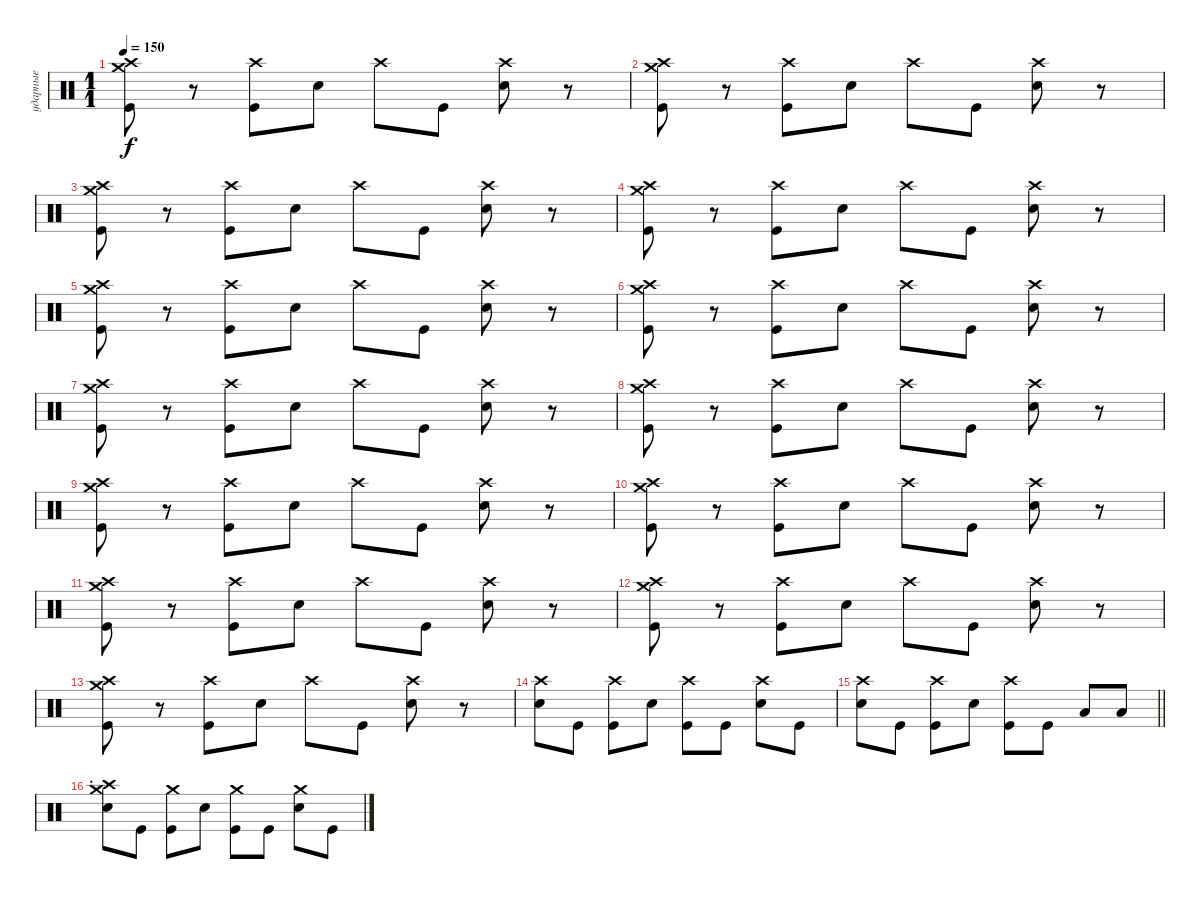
\track ("ударные" "ударные") {instrument percussion}
\staff {score}
\articulation defaults
\ts (1 1)
\tempo 150
\clef neutral
\ks c
("Crash high (hit)" "Crash medium (hit)" "Kick (hit)").8{dy f} r.8 ("Crash high (hit)" "Kick (hit)").8 "Snare (hit) 2".8 "Crash high (hit)".8 "Kick (hit)".8 ("Crash high (hit)" "Snare (hit) 2").8 r.8 |
("Crash high (hit)" "Crash medium (hit)" "Kick (hit)").8 r.8 ("Crash high (hit)" "Kick (hit)").8 "Snare (hit) 2".8 "Crash high (hit)".8 "Kick (hit)".8 ("Crash high (hit)" "Snare (hit) 2").8 r.8 |
("Crash high (hit)" "Crash medium (hit)" "Kick (hit)").8 r.8 ("Crash high (hit)" "Kick (hit)").8 "Snare (hit) 2".8 "Crash high (hit)".8 "Kick (hit)".8 ("Crash high (hit)" "Snare (hit) 2").8 r.8 |
("Crash high (hit)" "Crash medium (hit)" "Kick (hit)").8 r.8 ("Crash high (hit)" "Kick (hit)").8 "Snare (hit) 2".8 "Crash high (hit)".8 "Kick (hit)".8 ("Crash high (hit)" "Snare (hit) 2").8 r.8 |
("Crash high (hit)" "Crash medium (hit)" "Kick (hit)").8 r.8 ("Crash high (hit)" "Kick (hit)").8 "Snare (hit) 2".8 "Crash high (hit)".8 "Kick (hit)".8 ("Crash high (hit)" "Snare (hit) 2").8 r.8 |
("Crash high (hit)" "Crash medium (hit)" "Kick (hit)").8 r.8 ("Crash high (hit)" "Kick (hit)").8 "Snare (hit) 2".8 "Crash high (hit)".8 "Kick (hit)".8 ("Crash high (hit)" "Snare (hit) 2").8 r.8 |
("Crash high (hit)" "Crash medium (hit)" "Kick (hit)").8 r.8 ("Crash high (hit)" "Kick (hit)").8 "Snare (hit) 2".8 "Crash high (hit)".8 "Kick (hit)".8 ("Crash high (hit)" "Snare (hit) 2").8 r.8 |
("Crash high (hit)" "Crash medium (hit)" "Kick (hit)").8 r.8 ("Crash high (hit)" "Kick (hit)").8 "Snare (hit) 2".8 "Crash high (hit)".8 "Kick (hit)".8 ("Crash high (hit)" "Snare (hit) 2").8 r.8 |
("Crash high (hit)" "Crash medium (hit)" "Kick (hit)").8 r.8 ("Crash high (hit)" "Kick (hit)").8 "Snare (hit) 2".8 "Crash high (hit)".8 "Kick (hit)".8 ("Crash high (hit)" "Snare (hit) 2").8 r.8 |
("Crash high (hit)" "Crash medium (hit)" "Kick (hit)").8 r.8 ("Crash high (hit)" "Kick (hit)").8 "Snare (hit) 2".8 "Crash high (hit)".8 "Kick (hit)".8 ("Crash high (hit)" "Snare (hit) 2").8 r.8 |
("Crash high (hit)" "Crash medium (hit)" "Kick (hit)").8 r.8 ("Crash high (hit)" "Kick (hit)").8 "Snare (hit) 2".8 "Crash high (hit)".8 "Kick (hit)".8 ("Crash high (hit)" "Snare (hit) 2").8 r.8 |
("Crash high (hit)" "Crash medium (hit)" "Kick (hit)").8 r.8 ("Crash high (hit)" "Kick (hit)").8 "Snare (hit) 2".8 "Crash high (hit)".8 "Kick (hit)".8 ("Crash high (hit)" "Snare (hit) 2").8 r.8 |
("Crash high (hit)" "Crash medium (hit)" "Kick (hit)").8 r.8 ("Crash high (hit)" "Kick (hit)").8 "Snare (hit) 2".8 "Crash high (hit)".8 "Kick (hit)".8 ("Crash high (hit)" "Snare (hit) 2").8 r.8 |
("Crash high (hit)" "Snare (hit) 2").8 "Kick (hit)".8 ("Crash high (hit)" "Kick (hit)").8 "Snare (hit) 2".8 ("Crash high (hit)" "Kick (hit)").8 "Kick (hit)".8 ("Crash high (hit)" "Snare (hit) 2").8 "Kick (hit)".8 |
\barLineRight lightlight
("Crash high (hit)" "Snare (hit) 2").8 "Kick (hit)".8 ("Crash high (hit)" "Kick (hit)").8 "Snare (hit) 2".8 ("Crash high (hit)" "Kick (hit)").8 "Kick (hit)".8 "Low Tom (hit)".8 "Low Floor Tom (hit)".8 |
\section ("" ".")
("Crash medium (hit)" "Crash high (hit)" "Snare (hit) 2").8 "Kick (hit)".8 ("Crash medium (hit)" "Kick (hit)").8 "Snare (hit) 2".8 ("Crash medium (hit)" "Kick (hit)").8 "Kick (hit)".8 ("Crash medium (hit)" "Snare (hit) 2").8 "Kick (hit)".8
